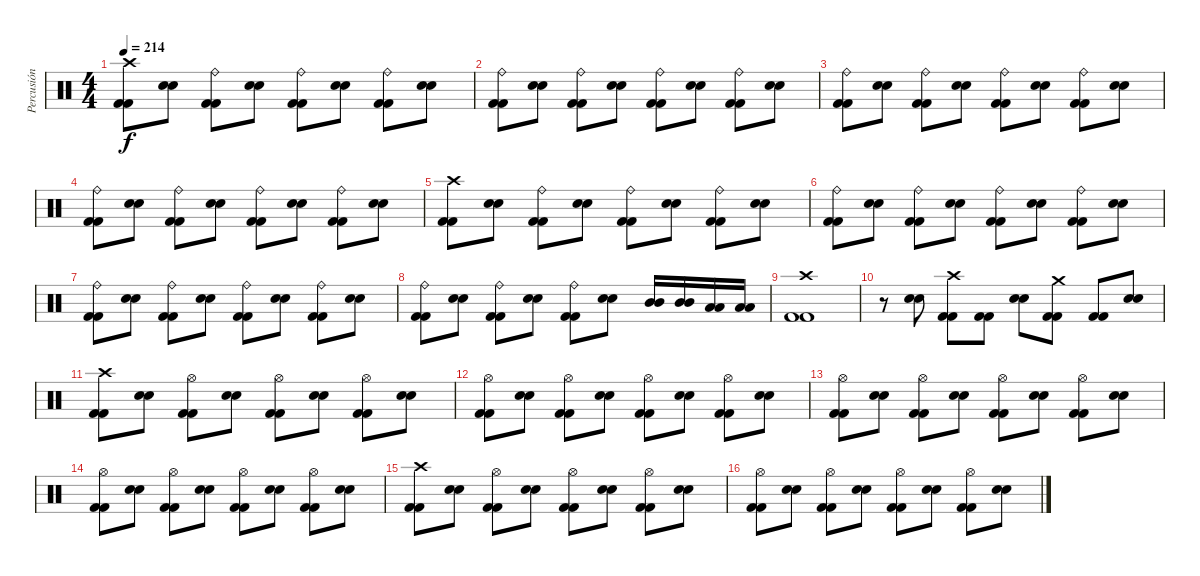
\track ("Percusión" "Percusión") {instrument percussion}
\staff {score}
\articulation defaults
\ts (4 4)
\tempo 214
\clef neutral
\ks c
("Kick (hit) 2" "Kick (hit) 2" "Crash high (hit)").8{dy f} ("Electric Snare (hit)" "Electric Snare (hit)").8 ("Kick (hit) 2" "Kick (hit) 2" "Ride (bell)").8 ("Electric Snare (hit)" "Electric Snare (hit)").8 ("Kick (hit) 2" "Kick (hit) 2" "Ride (bell)").8 ("Electric Snare (hit)" "Electric Snare (hit)").8 ("Kick (hit) 2" "Kick (hit) 2" "Ride (bell)").8 ("Electric Snare (hit)" "Electric Snare (hit)").8 |
("Kick (hit) 2" "Kick (hit) 2" "Ride (bell)").8 ("Electric Snare (hit)" "Electric Snare (hit)").8 ("Kick (hit) 2" "Kick (hit) 2" "Ride (bell)").8 ("Electric Snare (hit)" "Electric Snare (hit)").8 ("Kick (hit) 2" "Kick (hit) 2" "Ride (bell)").8 ("Electric Snare (hit)" "Electric Snare (hit)").8 ("Kick (hit) 2" "Kick (hit) 2" "Ride (bell)").8 ("Electric Snare (hit)" "Electric Snare (hit)").8 |
("Kick (hit) 2" "Kick (hit) 2" "Ride (bell)").8 ("Electric Snare (hit)" "Electric Snare (hit)").8 ("Kick (hit) 2" "Kick (hit) 2" "Ride (bell)").8 ("Electric Snare (hit)" "Electric Snare (hit)").8 ("Kick (hit) 2" "Kick (hit) 2" "Ride (bell)").8 ("Electric Snare (hit)" "Electric Snare (hit)").8 ("Kick (hit) 2" "Kick (hit) 2" "Ride (bell)").8 ("Electric Snare (hit)" "Electric Snare (hit)").8 |
("Kick (hit) 2" "Kick (hit) 2" "Ride (bell)").8 ("Electric Snare (hit)" "Electric Snare (hit)").8 ("Kick (hit) 2" "Kick (hit) 2" "Ride (bell)").8 ("Electric Snare (hit)" "Electric Snare (hit)").8 ("Kick (hit) 2" "Kick (hit) 2" "Ride (bell)").8 ("Electric Snare (hit)" "Electric Snare (hit)").8 ("Kick (hit) 2" "Kick (hit) 2" "Ride (bell)").8 ("Electric Snare (hit)" "Electric Snare (hit)").8 |
("Kick (hit) 2" "Kick (hit) 2" "Crash high (hit)").8 ("Electric Snare (hit)" "Electric Snare (hit)").8 ("Kick (hit) 2" "Kick (hit) 2" "Ride (bell)").8 ("Electric Snare (hit)" "Electric Snare (hit)").8 ("Kick (hit) 2" "Kick (hit) 2" "Ride (bell)").8 ("Electric Snare (hit)" "Electric Snare (hit)").8 ("Kick (hit) 2" "Kick (hit) 2" "Ride (bell)").8 ("Electric Snare (hit)" "Electric Snare (hit)").8 |
("Kick (hit) 2" "Kick (hit) 2" "Ride (bell)").8 ("Electric Snare (hit)" "Electric Snare (hit)").8 ("Kick (hit) 2" "Kick (hit) 2" "Ride (bell)").8 ("Electric Snare (hit)" "Electric Snare (hit)").8 ("Kick (hit) 2" "Kick (hit) 2" "Ride (bell)").8 ("Electric Snare (hit)" "Electric Snare (hit)").8 ("Kick (hit) 2" "Kick (hit) 2" "Ride (bell)").8 ("Electric Snare (hit)" "Electric Snare (hit)").8 |
("Kick (hit) 2" "Kick (hit) 2" "Ride (bell)").8 ("Electric Snare (hit)" "Electric Snare (hit)").8 ("Kick (hit) 2" "Kick (hit) 2" "Ride (bell)").8 ("Electric Snare (hit)" "Electric Snare (hit)").8 ("Kick (hit) 2" "Kick (hit) 2" "Ride (bell)").8 ("Electric Snare (hit)" "Electric Snare (hit)").8 ("Kick (hit) 2" "Kick (hit) 2" "Ride (bell)").8 ("Electric Snare (hit)" "Electric Snare (hit)").8 |
("Kick (hit) 2" "Kick (hit) 2" "Ride (bell)").8 ("Electric Snare (hit)" "Electric Snare (hit)").8 ("Kick (hit) 2" "Kick (hit) 2" "Ride (bell)").8 ("Electric Snare (hit)" "Electric Snare (hit)").8 ("Kick (hit) 2" "Kick (hit) 2" "Ride (bell)").8 ("Electric Snare (hit)" "Electric Snare (hit)").8 ("Mid Tom (hit)" "Mid Tom (hit)").16 ("Mid Tom (hit)" "Mid Tom (hit)").16 ("Low Floor Tom (hit)" "Low Floor Tom (hit)").16 ("Low Floor Tom (hit)" "Low Floor Tom (hit)").16 |
("Kick (hit) 2" "Kick (hit) 2" "Crash high (hit)").1 |
r.8 ("Electric Snare (hit)" "Electric Snare (hit)").8 ("Kick (hit) 2" "Kick (hit) 2" "Crash high (hit)").8 ("Kick (hit) 2" "Kick (hit) 2").8 ("Electric Snare (hit)" "Electric Snare (hit)").8 ("Kick (hit) 2" "Kick (hit) 2" "Crash medium (hit)").8 ("Kick (hit) 2" "Kick (hit) 2").8 ("Electric Snare (hit)" "Electric Snare (hit)").8 |
("Kick (hit) 2" "Kick (hit) 2" "Crash high (hit)").8 ("Electric Snare (hit)" "Electric Snare (hit)").8 ("Kick (hit) 2" "Kick (hit) 2" "Hi-Hat (open)").8 ("Electric Snare (hit)" "Electric Snare (hit)").8 ("Kick (hit) 2" "Kick (hit) 2" "Hi-Hat (open)").8 ("Electric Snare (hit)" "Electric Snare (hit)").8 ("Kick (hit) 2" "Kick (hit) 2" "Hi-Hat (open)").8 ("Electric Snare (hit)" "Electric Snare (hit)").8 |
("Kick (hit) 2" "Kick (hit) 2" "Hi-Hat (open)").8 ("Electric Snare (hit)" "Electric Snare (hit)").8 ("Kick (hit) 2" "Kick (hit) 2" "Hi-Hat (open)").8 ("Electric Snare (hit)" "Electric Snare (hit)").8 ("Kick (hit) 2" "Kick (hit) 2" "Hi-Hat (open)").8 ("Electric Snare (hit)" "Electric Snare (hit)").8 ("Kick (hit) 2" "Kick (hit) 2" "Hi-Hat (open)").8 ("Electric Snare (hit)" "Electric Snare (hit)").8 |
("Kick (hit) 2" "Kick (hit) 2" "Hi-Hat (open)").8 ("Electric Snare (hit)" "Electric Snare (hit)").8 ("Kick (hit) 2" "Kick (hit) 2" "Hi-Hat (open)").8 ("Electric Snare (hit)" "Electric Snare (hit)").8 ("Kick (hit) 2" "Kick (hit) 2" "Hi-Hat (open)").8 ("Electric Snare (hit)" "Electric Snare (hit)").8 ("Kick (hit) 2" "Kick (hit) 2" "Hi-Hat (open)").8 ("Electric Snare (hit)" "Electric Snare (hit)").8 |
("Kick (hit) 2" "Kick (hit) 2" "Hi-Hat (open)").8 ("Electric Snare (hit)" "Electric Snare (hit)").8 ("Kick (hit) 2" "Kick (hit) 2" "Hi-Hat (open)").8 ("Electric Snare (hit)" "Electric Snare (hit)").8 ("Kick (hit) 2" "Kick (hit) 2" "Hi-Hat (open)").8 ("Electric Snare (hit)" "Electric Snare (hit)").8 ("Kick (hit) 2" "Kick (hit) 2" "Hi-Hat (open)").8 ("Electric Snare (hit)" "Electric Snare (hit)").8 |
("Kick (hit) 2" "Kick (hit) 2" "Crash high (hit)").8 ("Electric Snare (hit)" "Electric Snare (hit)").8 ("Kick (hit) 2" "Kick (hit) 2" "Hi-Hat (open)").8 ("Electric Snare (hit)" "Electric Snare (hit)").8 ("Kick (hit) 2" "Kick (hit) 2" "Hi-Hat (open)").8 ("Electric Snare (hit)" "Electric Snare (hit)").8 ("Kick (hit) 2" "Kick (hit) 2" "Hi-Hat (open)").8 ("Electric Snare (hit)" "Electric Snare (hit)").8 |
("Kick (hit) 2" "Kick (hit) 2" "Hi-Hat (open)").8 ("Electric Snare (hit)" "Electric Snare (hit)").8 ("Kick (hit) 2" "Kick (hit) 2" "Hi-Hat (open)").8 ("Electric Snare (hit)" "Electric Snare (hit)").8 ("Kick (hit) 2" "Kick (hit) 2" "Hi-Hat (open)").8 ("Electric Snare (hit)" "Electric Snare (hit)").8 ("Kick (hit) 2" "Kick (hit) 2" "Hi-Hat (open)").8 ("Electric Snare (hit)" "Electric Snare (hit)").8
